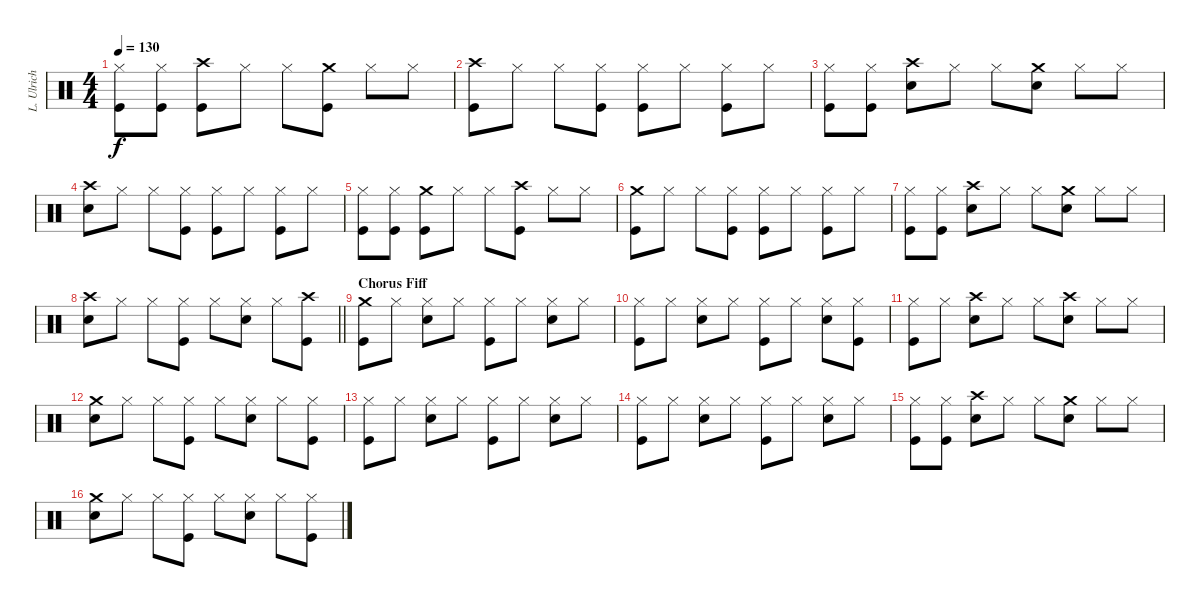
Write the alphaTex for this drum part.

\track ("L. Ulrich" "L. Ulrich") {instrument percussion}
\staff {score}
\articulation defaults
\ts (4 4)
\tempo 130
\clef neutral
\ks c
("Hi-Hat (closed)" "Kick (hit)").8{dy f} ("Hi-Hat (closed)" "Kick (hit)").8 ("Crash high (hit)" "Kick (hit)").8 "Hi-Hat (closed)".8 "Hi-Hat (closed)".8 ("Crash medium (hit)" "Kick (hit)").8 "Hi-Hat (closed)".8 "Hi-Hat (closed)".8 |
("Crash high (hit)" "Kick (hit)").8 "Hi-Hat (closed)".8 "Hi-Hat (closed)".8 ("Hi-Hat (closed)" "Kick (hit)").8 ("Hi-Hat (closed)" "Kick (hit)").8 "Hi-Hat (closed)".8 ("Hi-Hat (closed)" "Kick (hit)").8 "Hi-Hat (closed)".8 |
("Hi-Hat (closed)" "Kick (hit)").8 ("Hi-Hat (closed)" "Kick (hit)").8 ("Crash high (hit)" "Snare (hit) 2").8 "Hi-Hat (closed)".8 "Hi-Hat (closed)".8 ("Crash medium (hit)" "Snare (hit) 2").8 "Hi-Hat (closed)".8 "Hi-Hat (closed)".8 |
("Crash high (hit)" "Snare (hit) 2").8 "Hi-Hat (closed)".8 "Hi-Hat (closed)".8 ("Hi-Hat (closed)" "Kick (hit)").8 ("Hi-Hat (closed)" "Kick (hit)").8 "Hi-Hat (closed)".8 ("Hi-Hat (closed)" "Kick (hit)").8 "Hi-Hat (closed)".8 |
("Hi-Hat (closed)" "Kick (hit)").8 ("Hi-Hat (closed)" "Kick (hit)").8 ("Crash medium (hit)" "Kick (hit)").8 "Hi-Hat (closed)".8 "Hi-Hat (closed)".8 ("Crash high (hit)" "Kick (hit)").8 "Hi-Hat (closed)".8 "Hi-Hat (closed)".8 |
("Crash medium (hit)" "Kick (hit)").8 "Hi-Hat (closed)".8 "Hi-Hat (closed)".8 ("Hi-Hat (closed)" "Kick (hit)").8 ("Hi-Hat (closed)" "Kick (hit)").8 "Hi-Hat (closed)".8 ("Hi-Hat (closed)" "Kick (hit)").8 "Hi-Hat (closed)".8 |
("Hi-Hat (closed)" "Kick (hit)").8 ("Hi-Hat (closed)" "Kick (hit)").8 ("Crash high (hit)" "Snare (hit) 2").8 "Hi-Hat (closed)".8 "Hi-Hat (closed)".8 ("Crash medium (hit)" "Snare (hit) 2").8 "Hi-Hat (closed)".8 "Hi-Hat (closed)".8 |
\barLineRight lightlight
("Crash high (hit)" "Snare (hit) 2").8 "Hi-Hat (closed)".8 "Hi-Hat (closed)".8 ("Hi-Hat (closed)" "Kick (hit)").8 "Hi-Hat (closed)".8 ("Hi-Hat (closed)" "Snare (hit) 2").8 "Hi-Hat (closed)".8 ("Crash high (hit)" "Kick (hit)").8 |
\section ("" "Chorus Fiff")
("Crash medium (hit)" "Kick (hit)").8 "Hi-Hat (closed)".8 ("Hi-Hat (closed)" "Snare (hit) 2").8 "Hi-Hat (closed)".8 ("Hi-Hat (closed)" "Kick (hit)").8 "Hi-Hat (closed)".8 ("Hi-Hat (closed)" "Snare (hit) 2").8 "Hi-Hat (closed)".8 |
("Hi-Hat (closed)" "Kick (hit)").8 "Hi-Hat (closed)".8 ("Hi-Hat (closed)" "Snare (hit) 2").8 "Hi-Hat (closed)".8 ("Hi-Hat (closed)" "Kick (hit)").8 "Hi-Hat (closed)".8 ("Hi-Hat (closed)" "Snare (hit) 2").8 ("Hi-Hat (closed)" "Kick (hit)").8 |
("Hi-Hat (closed)" "Kick (hit)").8 "Hi-Hat (closed)".8 ("Crash high (hit)" "Snare (hit) 2").8 "Hi-Hat (closed)".8 "Hi-Hat (closed)".8 ("Crash high (hit)" "Snare (hit) 2").8 "Hi-Hat (closed)".8 "Hi-Hat (closed)".8 |
("Crash medium (hit)" "Snare (hit) 2").8 "Hi-Hat (closed)".8 "Hi-Hat (closed)".8 ("Hi-Hat (closed)" "Kick (hit)").8 "Hi-Hat (closed)".8 ("Hi-Hat (closed)" "Snare (hit) 2").8 "Hi-Hat (closed)".8 ("Hi-Hat (closed)" "Kick (hit)").8 |
("Hi-Hat (closed)" "Kick (hit)").8 "Hi-Hat (closed)".8 ("Hi-Hat (closed)" "Snare (hit) 2").8 "Hi-Hat (closed)".8 ("Hi-Hat (closed)" "Kick (hit)").8 "Hi-Hat (closed)".8 ("Hi-Hat (closed)" "Snare (hit) 2").8 "Hi-Hat (closed)".8 |
("Hi-Hat (closed)" "Kick (hit)").8 "Hi-Hat (closed)".8 ("Hi-Hat (closed)" "Snare (hit) 2").8 "Hi-Hat (closed)".8 ("Hi-Hat (closed)" "Kick (hit)").8 "Hi-Hat (closed)".8 ("Hi-Hat (closed)" "Snare (hit) 2").8 "Hi-Hat (closed)".8 |
("Hi-Hat (closed)" "Kick (hit)").8 ("Hi-Hat (closed)" "Kick (hit)").8 ("Crash high (hit)" "Snare (hit) 2").8 "Hi-Hat (closed)".8 "Hi-Hat (closed)".8 ("Crash medium (hit)" "Snare (hit) 2").8 "Hi-Hat (closed)".8 "Hi-Hat (closed)".8 |
("Crash medium (hit)" "Snare (hit) 2").8 "Hi-Hat (closed)".8 "Hi-Hat (closed)".8 ("Hi-Hat (closed)" "Kick (hit)").8 "Hi-Hat (closed)".8 ("Hi-Hat (closed)" "Snare (hit) 2").8 "Hi-Hat (closed)".8 ("Hi-Hat (closed)" "Kick (hit)").8
